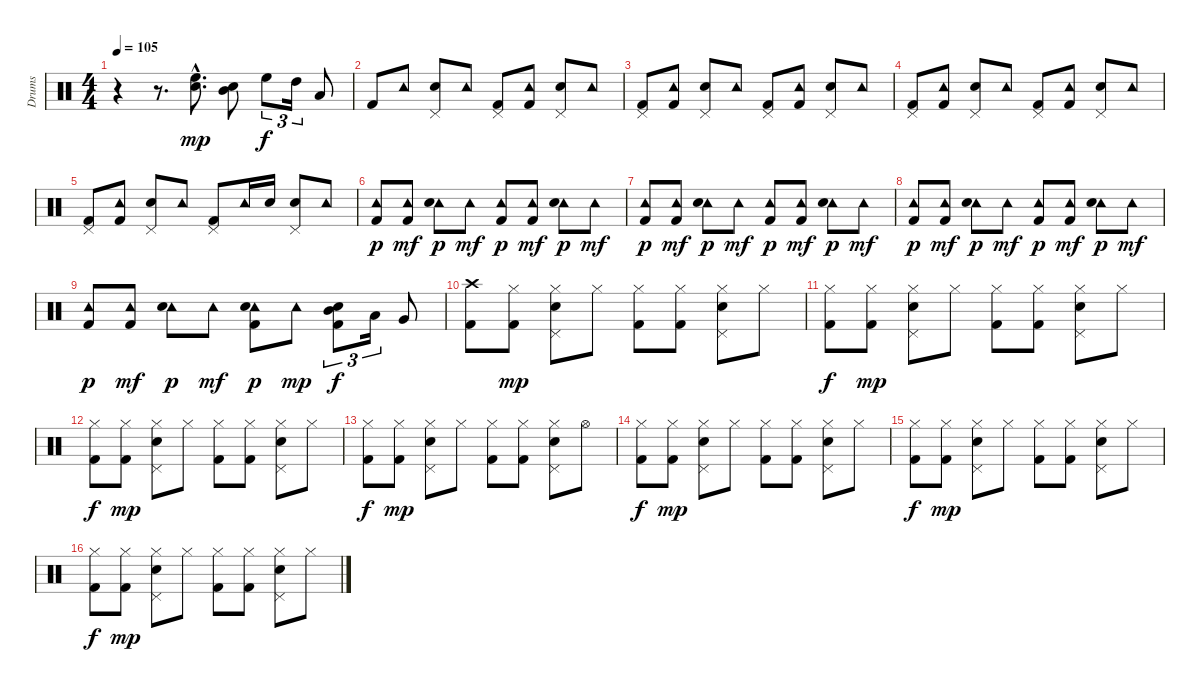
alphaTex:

\track ("Drums" "Drums") {instrument percussion}
\staff {score}
\articulation defaults
\ts (4 4)
\tempo 105
\tempo 100
\tempo 105
\clef neutral
\ks c
r.4{dy mp} r.8{d} ("High Floor Tom (hit)"{hac} "Snare (hit) 2"{hac}).8{d bu 120} ("Mid Tom (hit)" "Snare (hit) 2").8 "High Floor Tom (hit)".8{tu (3 2) dy f} "High Tom (hit)".16{tu (3 2)} "Low Tom (hit)".8 |
"Kick (hit) 2".8 "Tambourine (hit)".8 ("Pedal Hi-Hat (hit)" "Snare (hit) 2").8 "Tambourine (hit)".8 ("Pedal Hi-Hat (hit)" "Kick (hit) 2").8 ("Tambourine (hit)" "Kick (hit) 2").8 ("Pedal Hi-Hat (hit)" "Snare (hit) 2").8 "Tambourine (hit)".8 |
("Pedal Hi-Hat (hit)" "Kick (hit) 2").8 ("Tambourine (hit)" "Kick (hit) 2").8 ("Pedal Hi-Hat (hit)" "Snare (hit) 2").8 "Tambourine (hit)".8 ("Pedal Hi-Hat (hit)" "Kick (hit) 2").8 ("Tambourine (hit)" "Kick (hit) 2").8 ("Pedal Hi-Hat (hit)" "Snare (hit) 2").8 "Tambourine (hit)".8 |
("Pedal Hi-Hat (hit)" "Kick (hit) 2").8 ("Tambourine (hit)" "Kick (hit) 2").8 ("Pedal Hi-Hat (hit)" "Snare (hit) 2").8 "Tambourine (hit)".8 ("Pedal Hi-Hat (hit)" "Kick (hit) 2").8 ("Tambourine (hit)" "Kick (hit) 2").8 ("Pedal Hi-Hat (hit)" "Snare (hit) 2").8 "Tambourine (hit)".8 |
("Pedal Hi-Hat (hit)" "Kick (hit) 2").8 ("Tambourine (hit)" "Kick (hit) 2").8 ("Pedal Hi-Hat (hit)" "Snare (hit) 2").8 "Tambourine (hit)".8 ("Pedal Hi-Hat (hit)" "Kick (hit) 2").8 "Tambourine (hit)".16 "Snare (hit) 2".16 ("Pedal Hi-Hat (hit)" "Snare (hit) 2").8 "Tambourine (hit)".8 |
("Tambourine (hit)" "Kick (hit) 2").8{dy p} ("Tambourine (hit)" "Kick (hit) 2").8{dy mf} ("Tambourine (hit)" "Snare (hit) 2").8{dy p} "Tambourine (hit)".8{dy mf} ("Tambourine (hit)" "Kick (hit) 2").8{dy p} ("Tambourine (hit)" "Kick (hit) 2").8{dy mf} ("Tambourine (hit)" "Snare (hit) 2").8{dy p} "Tambourine (hit)".8{dy mf} |
("Tambourine (hit)" "Kick (hit) 2").8{dy p} ("Tambourine (hit)" "Kick (hit) 2").8{dy mf} ("Tambourine (hit)" "Snare (hit) 2").8{dy p} "Tambourine (hit)".8{dy mf} ("Tambourine (hit)" "Kick (hit) 2").8{dy p} ("Tambourine (hit)" "Kick (hit) 2").8{dy mf} ("Tambourine (hit)" "Snare (hit) 2").8{dy p} "Tambourine (hit)".8{dy mf} |
("Tambourine (hit)" "Kick (hit) 2").8{dy p} ("Tambourine (hit)" "Kick (hit) 2").8{dy mf} ("Tambourine (hit)" "Snare (hit) 2").8{dy p} "Tambourine (hit)".8{dy mf} ("Tambourine (hit)" "Kick (hit) 2").8{dy p} ("Tambourine (hit)" "Kick (hit) 2").8{dy mf} ("Tambourine (hit)" "Snare (hit) 2").8{dy p} "Tambourine (hit)".8{dy mf} |
("Tambourine (hit)" "Kick (hit) 2").8{dy p} ("Tambourine (hit)" "Kick (hit) 2").8{dy mf} ("Tambourine (hit)" "Snare (hit) 2").8{dy p} "Tambourine (hit)".8{dy mf} ("Tambourine (hit)" "Snare (hit) 2" "Kick (hit) 2").8{dy p} "Tambourine (hit)".8{dy mp} ("Mid Tom (hit)" "Electric Snare (hit)" "Kick (hit) 2").8{tu (3 2) dy f} "Low Tom (hit)".16{tu (3 2) bd 120} "Very Low Tom (hit)".8 |
("Crash high (hit)" "Kick (hit) 2").8 ("Hi-Hat (closed)" "Kick (hit) 2").8{dy mp} ("Hi-Hat (closed)" "Pedal Hi-Hat (hit)" "Electric Snare (hit)").8 "Hi-Hat (closed)".8 ("Hi-Hat (closed)" "Kick (hit) 2").8 ("Hi-Hat (closed)" "Kick (hit) 2").8 ("Hi-Hat (closed)" "Pedal Hi-Hat (hit)" "Electric Snare (hit)").8 "Hi-Hat (closed)".8 |
("Hi-Hat (closed)" "Kick (hit) 2").8{dy f} ("Hi-Hat (closed)" "Kick (hit) 2").8{dy mp} ("Hi-Hat (closed)" "Pedal Hi-Hat (hit)" "Electric Snare (hit)").8 "Hi-Hat (closed)".8 ("Hi-Hat (closed)" "Kick (hit) 2").8 ("Hi-Hat (closed)" "Kick (hit) 2").8 ("Hi-Hat (closed)" "Pedal Hi-Hat (hit)" "Electric Snare (hit)").8 "Hi-Hat (closed)".8 |
("Hi-Hat (closed)" "Kick (hit) 2").8{dy f} ("Hi-Hat (closed)" "Kick (hit) 2").8{dy mp} ("Hi-Hat (closed)" "Pedal Hi-Hat (hit)" "Electric Snare (hit)").8 "Hi-Hat (closed)".8 ("Hi-Hat (closed)" "Kick (hit) 2").8 ("Hi-Hat (closed)" "Kick (hit) 2").8 ("Hi-Hat (closed)" "Pedal Hi-Hat (hit)" "Electric Snare (hit)").8 "Hi-Hat (closed)".8 |
("Hi-Hat (closed)" "Kick (hit) 2").8{dy f} ("Hi-Hat (closed)" "Kick (hit) 2").8{dy mp} ("Hi-Hat (closed)" "Pedal Hi-Hat (hit)" "Electric Snare (hit)").8 "Hi-Hat (closed)".8 ("Hi-Hat (closed)" "Kick (hit) 2").8 ("Hi-Hat (closed)" "Kick (hit) 2").8 ("Hi-Hat (closed)" "Pedal Hi-Hat (hit)" "Electric Snare (hit)").8 "Hi-Hat (open)".8 |
("Hi-Hat (closed)" "Kick (hit) 2").8{dy f} ("Hi-Hat (closed)" "Kick (hit) 2").8{dy mp} ("Hi-Hat (closed)" "Pedal Hi-Hat (hit)" "Electric Snare (hit)").8 "Hi-Hat (closed)".8 ("Hi-Hat (closed)" "Kick (hit) 2").8 ("Hi-Hat (closed)" "Kick (hit) 2").8 ("Hi-Hat (closed)" "Pedal Hi-Hat (hit)" "Electric Snare (hit)").8 "Hi-Hat (closed)".8 |
("Hi-Hat (closed)" "Kick (hit) 2").8{dy f} ("Hi-Hat (closed)" "Kick (hit) 2").8{dy mp} ("Hi-Hat (closed)" "Pedal Hi-Hat (hit)" "Electric Snare (hit)").8 "Hi-Hat (closed)".8 ("Hi-Hat (closed)" "Kick (hit) 2").8 ("Hi-Hat (closed)" "Kick (hit) 2").8 ("Hi-Hat (closed)" "Pedal Hi-Hat (hit)" "Electric Snare (hit)").8 "Hi-Hat (closed)".8 |
("Hi-Hat (closed)" "Kick (hit) 2").8{dy f} ("Hi-Hat (closed)" "Kick (hit) 2").8{dy mp} ("Hi-Hat (closed)" "Pedal Hi-Hat (hit)" "Electric Snare (hit)").8 "Hi-Hat (closed)".8 ("Hi-Hat (closed)" "Kick (hit) 2").8 ("Hi-Hat (closed)" "Kick (hit) 2").8 ("Hi-Hat (closed)" "Pedal Hi-Hat (hit)" "Electric Snare (hit)").8 "Hi-Hat (closed)".8
